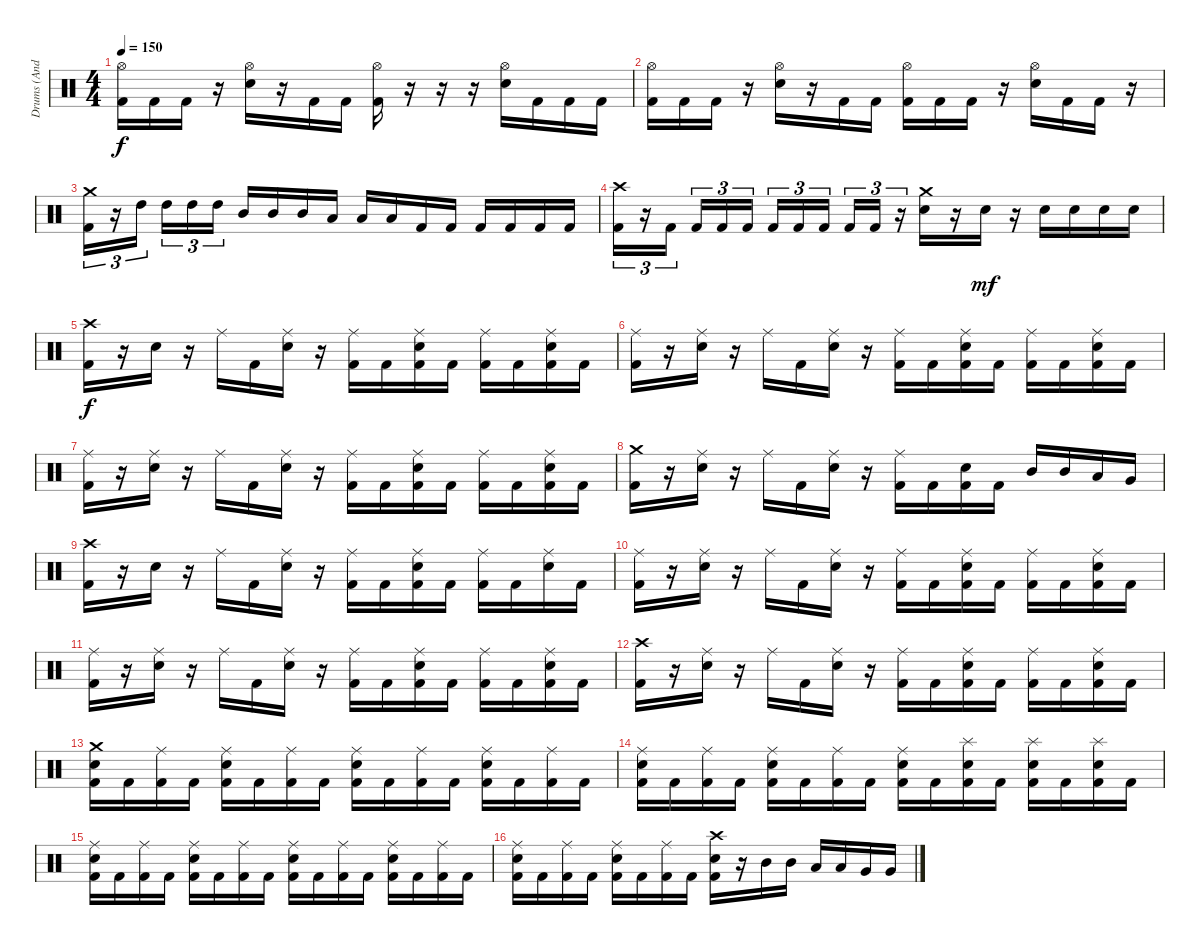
\track ("Drums (Andy C)" "Drums (And") {instrument percussion}
\staff {score}
\articulation defaults
\ts (4 4)
\tempo 150
\clef neutral
\ks c
("Hi-Hat (open)" "Kick (hit) 2").16{dy f} "Kick (hit) 2".16 "Kick (hit) 2".16 r.16 ("Hi-Hat (open)" "Electric Snare (hit)").16 r.16 "Kick (hit) 2".16 "Kick (hit) 2".16 ("Hi-Hat (open)" "Kick (hit) 2").16 r.16 r.16 r.16 ("Hi-Hat (open)" "Electric Snare (hit)").16 "Kick (hit) 2".16 "Kick (hit) 2".16 "Kick (hit) 2".16 |
("Hi-Hat (open)" "Kick (hit) 2").16 "Kick (hit) 2".16 "Kick (hit) 2".16 r.16 ("Hi-Hat (open)" "Electric Snare (hit)").16 r.16 "Kick (hit) 2".16 "Kick (hit) 2".16 ("Hi-Hat (open)" "Kick (hit) 2").16 "Kick (hit) 2".16 "Kick (hit) 2".16 r.16 ("Hi-Hat (open)" "Electric Snare (hit)").16 "Kick (hit) 2".16 "Kick (hit) 2".16 r.16 |
("Crash medium (hit)" "Kick (hit) 2").16{tu (3 2)} r.16{tu (3 2)} "High Tom (hit)".16{tu (3 2)} "High Tom (hit)".16{tu (3 2)} "High Tom (hit)".16{tu (3 2)} "High Tom (hit)".16{tu (3 2)} "Mid Tom (hit)".16 "Mid Tom (hit)".16 "Mid Tom (hit)".16 "Low Tom (hit)".16 "Low Tom (hit)".16 "Low Tom (hit)".16 "Kick (hit) 2".16 "Kick (hit) 2".16 "Kick (hit) 2".16 "Kick (hit) 2".16 "Kick (hit) 2".16 "Kick (hit) 2".16 |
("Crash high (hit)" "Kick (hit) 2").16{tu (3 2)} r.16{tu (3 2)} "Kick (hit) 2".16{tu (3 2)} "Kick (hit) 2".16{tu (3 2)} "Kick (hit) 2".16{tu (3 2)} "Kick (hit) 2".16{tu (3 2)} "Kick (hit) 2".16{tu (3 2)} "Kick (hit) 2".16{tu (3 2)} "Kick (hit) 2".16{tu (3 2)} "Kick (hit) 2".16{tu (3 2)} "Kick (hit) 2".16{tu (3 2)} r.16{tu (3 2)} ("Crash medium (hit)" "Electric Snare (hit)").16 r.16 "Electric Snare (hit)".16{dy mf} r.16 "Electric Snare (hit)".16 "Electric Snare (hit)".16 "Electric Snare (hit)".16 "Electric Snare (hit)".16 |
("Crash high (hit)" "Kick (hit) 2").16{dy f} r.16 "Electric Snare (hit)".16 r.16 "Ride (middle)".16 "Kick (hit) 2".16 ("Ride (middle)" "Electric Snare (hit)").16 r.16 ("Ride (middle)" "Kick (hit) 2").16 "Kick (hit) 2".16 ("Ride (middle)" "Kick (hit) 2" "Electric Snare (hit)").16 "Kick (hit) 2".16 ("Ride (middle)" "Kick (hit) 2").16 "Kick (hit) 2".16 ("Ride (middle)" "Kick (hit) 2" "Electric Snare (hit)").16 "Kick (hit) 2".16 |
("Ride (middle)" "Kick (hit) 2").16 r.16 ("Ride (middle)" "Electric Snare (hit)").16 r.16 "Ride (middle)".16 "Kick (hit) 2".16 ("Ride (middle)" "Electric Snare (hit)").16 r.16 ("Ride (middle)" "Kick (hit) 2").16 "Kick (hit) 2".16 ("Ride (middle)" "Kick (hit) 2" "Electric Snare (hit)").16 "Kick (hit) 2".16 ("Ride (middle)" "Kick (hit) 2").16 "Kick (hit) 2".16 ("Ride (middle)" "Kick (hit) 2" "Electric Snare (hit)").16 "Kick (hit) 2".16 |
("Ride (middle)" "Kick (hit) 2").16 r.16 ("Ride (middle)" "Electric Snare (hit)").16 r.16 "Ride (middle)".16 "Kick (hit) 2".16 ("Ride (middle)" "Electric Snare (hit)").16 r.16 ("Ride (middle)" "Kick (hit) 2").16 "Kick (hit) 2".16 ("Ride (middle)" "Kick (hit) 2" "Electric Snare (hit)").16 "Kick (hit) 2".16 ("Ride (middle)" "Kick (hit) 2").16 "Kick (hit) 2".16 ("Ride (middle)" "Kick (hit) 2" "Electric Snare (hit)").16 "Kick (hit) 2".16 |
("Crash medium (hit)" "Kick (hit) 2").16 r.16 ("Ride (middle)" "Electric Snare (hit)").16 r.16 "Ride (middle)".16 "Kick (hit) 2".16 ("Ride (middle)" "Electric Snare (hit)").16 r.16 ("Ride (middle)" "Kick (hit) 2").16 "Kick (hit) 2".16 ("Kick (hit) 2" "Electric Snare (hit)").16 "Kick (hit) 2".16 "Mid Tom (hit)".16 "Mid Tom (hit)".16 "Low Tom (hit)".16 "Very Low Tom (hit)".16 |
("Crash high (hit)" "Kick (hit) 2").16 r.16 "Electric Snare (hit)".16 r.16 "Ride (middle)".16 "Kick (hit) 2".16 ("Ride (middle)" "Electric Snare (hit)").16 r.16 ("Ride (middle)" "Kick (hit) 2").16 "Kick (hit) 2".16 ("Ride (middle)" "Kick (hit) 2" "Electric Snare (hit)").16 "Kick (hit) 2".16 ("Ride (middle)" "Kick (hit) 2").16 "Kick (hit) 2".16 ("Ride (middle)" "Electric Snare (hit)").16 "Kick (hit) 2".16 |
("Ride (middle)" "Kick (hit) 2").16 r.16 ("Ride (middle)" "Electric Snare (hit)").16 r.16 "Ride (middle)".16 "Kick (hit) 2".16 ("Ride (middle)" "Electric Snare (hit)").16 r.16 ("Ride (middle)" "Kick (hit) 2").16 "Kick (hit) 2".16 ("Ride (middle)" "Kick (hit) 2" "Electric Snare (hit)").16 "Kick (hit) 2".16 ("Ride (middle)" "Kick (hit) 2").16 "Kick (hit) 2".16 ("Ride (middle)" "Kick (hit) 2" "Electric Snare (hit)").16 "Kick (hit) 2".16 |
("Ride (middle)" "Kick (hit) 2").16 r.16 ("Ride (middle)" "Electric Snare (hit)").16 r.16 "Ride (middle)".16 "Kick (hit) 2".16 ("Ride (middle)" "Electric Snare (hit)").16 r.16 ("Ride (middle)" "Kick (hit) 2").16 "Kick (hit) 2".16 ("Ride (middle)" "Kick (hit) 2" "Electric Snare (hit)").16 "Kick (hit) 2".16 ("Ride (middle)" "Kick (hit) 2").16 "Kick (hit) 2".16 ("Ride (middle)" "Kick (hit) 2" "Electric Snare (hit)").16 "Kick (hit) 2".16 |
("Crash high (hit)" "Kick (hit) 2").16 r.16 ("Ride (middle)" "Electric Snare (hit)").16 r.16 "Ride (middle)".16 "Kick (hit) 2".16 ("Ride (middle)" "Electric Snare (hit)").16 r.16 ("Ride (middle)" "Kick (hit) 2").16 "Kick (hit) 2".16 ("Ride (middle)" "Kick (hit) 2" "Electric Snare (hit)").16 "Kick (hit) 2".16 ("Ride (middle)" "Kick (hit) 2").16 "Kick (hit) 2".16 ("Ride (middle)" "Kick (hit) 2" "Electric Snare (hit)").16 "Kick (hit) 2".16 |
("Crash medium (hit)" "Kick (hit) 2" "Electric Snare (hit)").16 "Kick (hit) 2".16 ("Ride (middle)" "Kick (hit) 2").16 "Kick (hit) 2".16 ("Ride (middle)" "Kick (hit) 2" "Electric Snare (hit)").16 "Kick (hit) 2".16 ("Ride (middle)" "Kick (hit) 2").16 "Kick (hit) 2".16 ("Ride (middle)" "Kick (hit) 2" "Electric Snare (hit)").16 "Kick (hit) 2".16 ("Ride (middle)" "Kick (hit) 2").16 "Kick (hit) 2".16 ("Ride (middle)" "Kick (hit) 2" "Electric Snare (hit)").16 "Kick (hit) 2".16 ("Ride (middle)" "Kick (hit) 2").16 "Kick (hit) 2".16 |
("Ride (middle)" "Kick (hit) 2" "Electric Snare (hit)").16 "Kick (hit) 2".16 ("Ride (middle)" "Kick (hit) 2").16 "Kick (hit) 2".16 ("Ride (middle)" "Kick (hit) 2" "Electric Snare (hit)").16 "Kick (hit) 2".16 ("Ride (middle)" "Kick (hit) 2").16 "Kick (hit) 2".16 ("Ride (middle)" "Kick (hit) 2" "Electric Snare (hit)").16 "Kick (hit) 2".16 ("Splash (hit)" "Kick (hit) 2" "Electric Snare (hit)").16 "Kick (hit) 2".16 ("Splash (hit)" "Kick (hit) 2" "Electric Snare (hit)").16 "Kick (hit) 2".16 ("Splash (hit)" "Kick (hit) 2" "Electric Snare (hit)").16 "Kick (hit) 2".16 |
("Ride (middle)" "Kick (hit) 2" "Electric Snare (hit)").16 "Kick (hit) 2".16 ("Ride (middle)" "Kick (hit) 2").16 "Kick (hit) 2".16 ("Ride (middle)" "Kick (hit) 2" "Electric Snare (hit)").16 "Kick (hit) 2".16 ("Ride (middle)" "Kick (hit) 2").16 "Kick (hit) 2".16 ("Ride (middle)" "Kick (hit) 2" "Electric Snare (hit)").16 "Kick (hit) 2".16 ("Ride (middle)" "Kick (hit) 2").16 "Kick (hit) 2".16 ("Ride (middle)" "Kick (hit) 2" "Electric Snare (hit)").16 "Kick (hit) 2".16 ("Ride (middle)" "Kick (hit) 2").16 "Kick (hit) 2".16 |
("Ride (middle)" "Kick (hit) 2" "Electric Snare (hit)").16 "Kick (hit) 2".16 ("Ride (middle)" "Kick (hit) 2").16 "Kick (hit) 2".16 ("Ride (middle)" "Kick (hit) 2" "Electric Snare (hit)").16 "Kick (hit) 2".16 ("Ride (middle)" "Kick (hit) 2").16 "Kick (hit) 2".16 ("Crash high (hit)" "Kick (hit) 2" "Electric Snare (hit)").16 r.16 "Mid Tom (hit)".16 "Mid Tom (hit)".16 "Low Tom (hit)".16 "Low Tom (hit)".16 "Very Low Tom (hit)".16 "Very Low Tom (hit)".16
